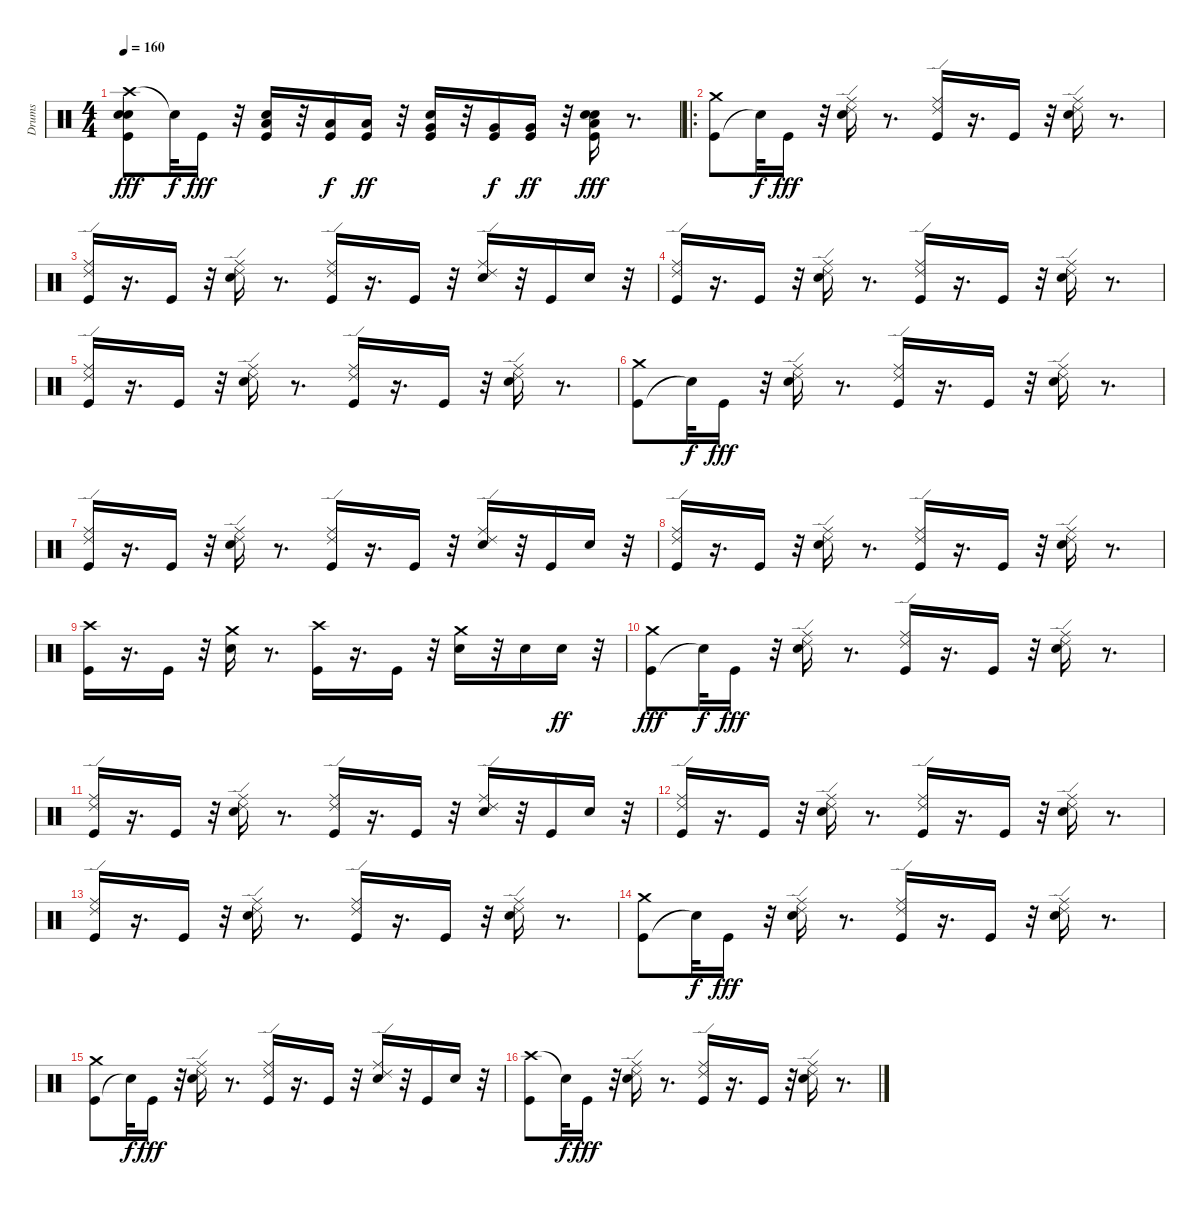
\track ("Drums" "Drums") {instrument percussion}
\staff {score}
\articulation defaults
\ts (4 4)
\tempo 160
\clef neutral
\ks c
("Crash high (hit)" "Snare (hit) 2" "Kick (hit)" "Electric Snare (hit)").8{dy fff} "Snare (hit)"{t}.32{dy f} "Kick (hit)".16{dy fff} r.32 ("Low Tom (hit)" "Electric Snare (hit)" "Kick (hit)").16 r.32 ("Low Tom (hit)" "Kick (hit)").16{dy f} ("Low Tom (hit)" "Kick (hit)").16{dy ff} r.32 ("Very Low Tom (hit)" "Electric Snare (hit)" "Kick (hit)").16 r.32 ("Very Low Tom (hit)" "Kick (hit)").16{dy f} ("Very Low Tom (hit)" "Kick (hit)").16{dy ff} r.32 ("Low Floor Tom (hit)" "Electric Snare (hit)" "Snare (hit) 2" "Kick (hit)").16{dy fff} r.8{d} |
\ro
("Kick (hit)" "Crash medium (hit)").8 "Snare (hit)"{t}.32{dy f} "Kick (hit)".16{dy fff} r.32 ("Ride (middle)" "Ride (edge) 2" "Electric Snare (hit)").16 r.8{d} ("Ride (middle)" "Ride (edge) 2" "Kick (hit)").16 r.16{d} "Kick (hit)".16 r.32 ("Ride (middle)" "Ride (edge) 2" "Electric Snare (hit)").16 r.8{d} |
("Kick (hit)" "Ride (middle)" "Ride (edge) 2").16 r.16{d} "Kick (hit)".16 r.32 ("Electric Snare (hit)" "Ride (middle)" "Ride (edge) 2").16 r.8{d} ("Kick (hit)" "Ride (middle)" "Ride (edge) 2").16 r.16{d} "Kick (hit)".16 r.32 ("Electric Snare (hit)" "Ride (middle)" "Ride (edge) 2").16 r.32 "Kick (hit)".16 "Electric Snare (hit)".16 r.32 |
("Ride (middle)" "Ride (edge) 2" "Kick (hit)").16 r.16{d} "Kick (hit)".16 r.32 ("Ride (middle)" "Ride (edge) 2" "Electric Snare (hit)").16 r.8{d} ("Ride (middle)" "Ride (edge) 2" "Kick (hit)").16 r.16{d} "Kick (hit)".16 r.32 ("Ride (middle)" "Ride (edge) 2" "Electric Snare (hit)").16 r.8{d} |
("Kick (hit)" "Ride (middle)" "Ride (edge) 2").16 r.16{d} "Kick (hit)".16 r.32 ("Electric Snare (hit)" "Ride (middle)" "Ride (edge) 2").16 r.8{d} ("Kick (hit)" "Ride (middle)" "Ride (edge) 2").16 r.16{d} "Kick (hit)".16 r.32 ("Electric Snare (hit)" "Ride (middle)" "Ride (edge) 2").16 r.8{d} |
("Kick (hit)" "Crash medium (hit)").8 "Snare (hit)"{t}.32{dy f} "Kick (hit)".16{dy fff} r.32 ("Ride (middle)" "Ride (edge) 2" "Electric Snare (hit)").16 r.8{d} ("Ride (middle)" "Ride (edge) 2" "Kick (hit)").16 r.16{d} "Kick (hit)".16 r.32 ("Ride (middle)" "Ride (edge) 2" "Electric Snare (hit)").16 r.8{d} |
("Kick (hit)" "Ride (middle)" "Ride (edge) 2").16 r.16{d} "Kick (hit)".16 r.32 ("Electric Snare (hit)" "Ride (middle)" "Ride (edge) 2").16 r.8{d} ("Kick (hit)" "Ride (middle)" "Ride (edge) 2").16 r.16{d} "Kick (hit)".16 r.32 ("Electric Snare (hit)" "Ride (middle)" "Ride (edge) 2").16 r.32 "Kick (hit)".16 "Electric Snare (hit)".16 r.32 |
("Kick (hit)" "Ride (middle)" "Ride (edge) 2").16 r.16{d} "Kick (hit)".16 r.32 ("Electric Snare (hit)" "Ride (middle)" "Ride (edge) 2").16 r.8{d} ("Kick (hit)" "Ride (middle)" "Ride (edge) 2").16 r.16{d} "Kick (hit)".16 r.32 ("Electric Snare (hit)" "Ride (middle)" "Ride (edge) 2").16 r.8{d} |
("Crash high (hit)" "Kick (hit)").16 r.16{d} "Kick (hit)".16 r.32 ("Electric Snare (hit)" "Crash medium (hit)").16 r.8{d} ("Crash high (hit)" "Kick (hit)").16 r.16{d} "Kick (hit)".16 r.32 ("Crash medium (hit)" "Electric Snare (hit)").16 r.32 "Electric Snare (hit)".16 "Electric Snare (hit)".16{dy ff} r.32 |
("Kick (hit)" "Crash medium (hit)").8{dy fff} "Snare (hit)"{t}.32{dy f} "Kick (hit)".16{dy fff} r.32 ("Ride (middle)" "Ride (edge) 2" "Electric Snare (hit)").16 r.8{d} ("Ride (middle)" "Ride (edge) 2" "Kick (hit)").16 r.16{d} "Kick (hit)".16 r.32 ("Ride (middle)" "Ride (edge) 2" "Electric Snare (hit)").16 r.8{d} |
("Kick (hit)" "Ride (middle)" "Ride (edge) 2").16 r.16{d} "Kick (hit)".16 r.32 ("Electric Snare (hit)" "Ride (middle)" "Ride (edge) 2").16 r.8{d} ("Kick (hit)" "Ride (middle)" "Ride (edge) 2").16 r.16{d} "Kick (hit)".16 r.32 ("Electric Snare (hit)" "Ride (middle)" "Ride (edge) 2").16 r.32 "Kick (hit)".16 "Electric Snare (hit)".16 r.32 |
("Ride (middle)" "Ride (edge) 2" "Kick (hit)").16 r.16{d} "Kick (hit)".16 r.32 ("Ride (middle)" "Ride (edge) 2" "Electric Snare (hit)").16 r.8{d} ("Ride (middle)" "Ride (edge) 2" "Kick (hit)").16 r.16{d} "Kick (hit)".16 r.32 ("Ride (middle)" "Ride (edge) 2" "Electric Snare (hit)").16 r.8{d} |
("Kick (hit)" "Ride (middle)" "Ride (edge) 2").16 r.16{d} "Kick (hit)".16 r.32 ("Electric Snare (hit)" "Ride (middle)" "Ride (edge) 2").16 r.8{d} ("Kick (hit)" "Ride (middle)" "Ride (edge) 2").16 r.16{d} "Kick (hit)".16 r.32 ("Electric Snare (hit)" "Ride (middle)" "Ride (edge) 2").16 r.8{d} |
("Kick (hit)" "Crash medium (hit)").8 "Snare (hit)"{t}.32{dy f} "Kick (hit)".16{dy fff} r.32 ("Ride (middle)" "Ride (edge) 2" "Electric Snare (hit)").16 r.8{d} ("Ride (middle)" "Ride (edge) 2" "Kick (hit)").16 r.16{d} "Kick (hit)".16 r.32 ("Ride (middle)" "Ride (edge) 2" "Electric Snare (hit)").16 r.8{d} |
("Kick (hit)" "Crash medium (hit)").8 "Snare (hit)"{t}.32{dy f} "Kick (hit)".16{dy fff} r.32 ("Electric Snare (hit)" "Ride (middle)" "Ride (edge) 2").16 r.8{d} ("Kick (hit)" "Ride (middle)" "Ride (edge) 2").16 r.16{d} "Kick (hit)".16 r.32 ("Electric Snare (hit)" "Ride (middle)" "Ride (edge) 2").16 r.32 "Kick (hit)".16 "Electric Snare (hit)".16 r.32 |
("Crash high (hit)" "Kick (hit)").8 "Snare (hit)"{t}.32{dy f} "Kick (hit)".16{dy fff} r.32 ("Electric Snare (hit)" "Ride (middle)" "Ride (edge) 2").16 r.8{d} ("Kick (hit)" "Ride (middle)" "Ride (edge) 2").16 r.16{d} "Kick (hit)".16 r.32 ("Electric Snare (hit)" "Ride (middle)" "Ride (edge) 2").16 r.8{d}
